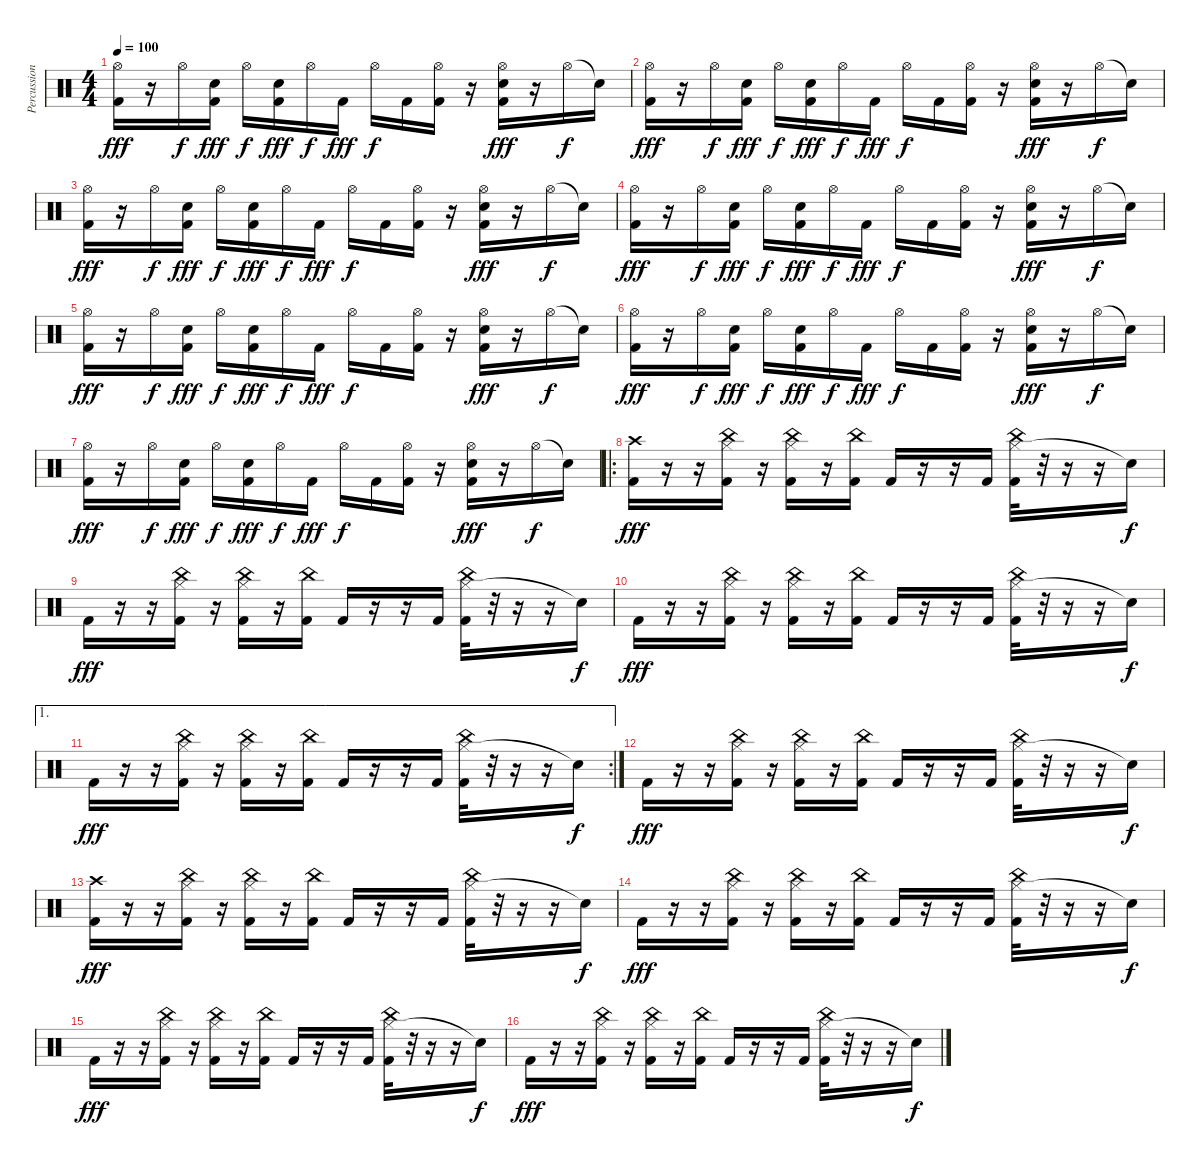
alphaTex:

\track ("Percussion" "Percussion") {instrument percussion}
\staff {score}
\articulation defaults
\ts (4 4)
\tempo 100
\clef neutral
\ks c
("Hi-Hat (open)" "Kick (hit) 2").16{dy fff} r.16 "Hi-Hat (open)".16{dy f} ("Snare (hit) 2" "Kick (hit) 2").16{dy fff} "Hi-Hat (open)".16{dy f} ("Snare (hit) 2" "Kick (hit) 2").16{dy fff} "Hi-Hat (open)".16{dy f} "Kick (hit) 2".16{dy fff} "Hi-Hat (open)".16{dy f} "Kick (hit) 2".16 ("Hi-Hat (open)" "Kick (hit) 2").16 r.16 ("Hi-Hat (open)" "Snare (hit) 2" "Kick (hit) 2").16{dy fff} r.16 "Hi-Hat (open)".16{dy f} "Snare (hit)"{t}.16 |
("Hi-Hat (open)" "Kick (hit) 2").16{dy fff} r.16 "Hi-Hat (open)".16{dy f} ("Snare (hit) 2" "Kick (hit) 2").16{dy fff} "Hi-Hat (open)".16{dy f} ("Snare (hit) 2" "Kick (hit) 2").16{dy fff} "Hi-Hat (open)".16{dy f} "Kick (hit) 2".16{dy fff} "Hi-Hat (open)".16{dy f} "Kick (hit) 2".16 ("Hi-Hat (open)" "Kick (hit) 2").16 r.16 ("Hi-Hat (open)" "Snare (hit) 2" "Kick (hit) 2").16{dy fff} r.16 "Hi-Hat (open)".16{dy f} "Snare (hit)"{t}.16 |
("Hi-Hat (open)" "Kick (hit) 2").16{dy fff} r.16 "Hi-Hat (open)".16{dy f} ("Snare (hit) 2" "Kick (hit) 2").16{dy fff} "Hi-Hat (open)".16{dy f} ("Snare (hit) 2" "Kick (hit) 2").16{dy fff} "Hi-Hat (open)".16{dy f} "Kick (hit) 2".16{dy fff} "Hi-Hat (open)".16{dy f} "Kick (hit) 2".16 ("Hi-Hat (open)" "Kick (hit) 2").16 r.16 ("Hi-Hat (open)" "Snare (hit) 2" "Kick (hit) 2").16{dy fff} r.16 "Hi-Hat (open)".16{dy f} "Snare (hit)"{t}.16 |
("Hi-Hat (open)" "Kick (hit) 2").16{dy fff} r.16 "Hi-Hat (open)".16{dy f} ("Snare (hit) 2" "Kick (hit) 2").16{dy fff} "Hi-Hat (open)".16{dy f} ("Snare (hit) 2" "Kick (hit) 2").16{dy fff} "Hi-Hat (open)".16{dy f} "Kick (hit) 2".16{dy fff} "Hi-Hat (open)".16{dy f} "Kick (hit) 2".16 ("Hi-Hat (open)" "Kick (hit) 2").16 r.16 ("Hi-Hat (open)" "Snare (hit) 2" "Kick (hit) 2").16{dy fff} r.16 "Hi-Hat (open)".16{dy f} "Snare (hit)"{t}.16 |
("Hi-Hat (open)" "Kick (hit) 2").16{dy fff} r.16 "Hi-Hat (open)".16{dy f} ("Snare (hit) 2" "Kick (hit) 2").16{dy fff} "Hi-Hat (open)".16{dy f} ("Snare (hit) 2" "Kick (hit) 2").16{dy fff} "Hi-Hat (open)".16{dy f} "Kick (hit) 2".16{dy fff} "Hi-Hat (open)".16{dy f} "Kick (hit) 2".16 ("Hi-Hat (open)" "Kick (hit) 2").16 r.16 ("Hi-Hat (open)" "Snare (hit) 2" "Kick (hit) 2").16{dy fff} r.16 "Hi-Hat (open)".16{dy f} "Snare (hit)"{t}.16 |
("Hi-Hat (open)" "Kick (hit) 2").16{dy fff} r.16 "Hi-Hat (open)".16{dy f} ("Snare (hit) 2" "Kick (hit) 2").16{dy fff} "Hi-Hat (open)".16{dy f} ("Snare (hit) 2" "Kick (hit) 2").16{dy fff} "Hi-Hat (open)".16{dy f} "Kick (hit) 2".16{dy fff} "Hi-Hat (open)".16{dy f} "Kick (hit) 2".16 ("Hi-Hat (open)" "Kick (hit) 2").16 r.16 ("Hi-Hat (open)" "Snare (hit) 2" "Kick (hit) 2").16{dy fff} r.16 "Hi-Hat (open)".16{dy f} "Snare (hit)"{t}.16 |
("Hi-Hat (open)" "Kick (hit) 2").16{dy fff} r.16 "Hi-Hat (open)".16{dy f} ("Snare (hit) 2" "Kick (hit) 2").16{dy fff} "Hi-Hat (open)".16{dy f} ("Snare (hit) 2" "Kick (hit) 2").16{dy fff} "Hi-Hat (open)".16{dy f} "Kick (hit) 2".16{dy fff} "Hi-Hat (open)".16{dy f} "Kick (hit) 2".16 ("Hi-Hat (open)" "Kick (hit) 2").16 r.16 ("Hi-Hat (open)" "Snare (hit) 2" "Kick (hit) 2").16{dy fff} r.16 "Hi-Hat (open)".16{dy f} "Snare (hit)"{t}.16 |
\ro
("Crash high (hit)" "Kick (hit) 2").16{dy fff volume 10} r.16 r.16 ("Hi-Hat (closed)" "China (hit)" "Kick (hit) 2").16 r.16 ("Hi-Hat (closed)" "China (hit)" "Kick (hit) 2").16 r.16 ("China (hit)" "Kick (hit) 2").16 "Kick (hit) 2".16 r.16 r.16 "Kick (hit) 2".16 ("Hi-Hat (closed)" "China (hit)" "Kick (hit) 2").32 r.32 r.16 r.16 "Snare (hit)"{t}.16{dy f} |
"Kick (hit) 2".16{dy fff} r.16 r.16 ("Hi-Hat (closed)" "China (hit)" "Kick (hit) 2").16 r.16 ("Hi-Hat (closed)" "China (hit)" "Kick (hit) 2").16 r.16 ("China (hit)" "Kick (hit) 2").16 "Kick (hit) 2".16 r.16 r.16 "Kick (hit) 2".16 ("Hi-Hat (closed)" "China (hit)" "Kick (hit) 2").32 r.32 r.16 r.16 "Snare (hit)"{t}.16{dy f} |
"Kick (hit) 2".16{dy fff volume 13} r.16 r.16 ("Hi-Hat (closed)" "China (hit)" "Kick (hit) 2").16 r.16 ("Hi-Hat (closed)" "China (hit)" "Kick (hit) 2").16 r.16 ("China (hit)" "Kick (hit) 2").16 "Kick (hit) 2".16 r.16 r.16 "Kick (hit) 2".16 ("Hi-Hat (closed)" "China (hit)" "Kick (hit) 2").32 r.32 r.16 r.16 "Snare (hit)"{t}.16{dy f} |
\ae 1
\rc 2 "Kick (hit) 2".16{dy fff volume 13}
r.16 r.16 ("Hi-Hat (closed)" "China (hit)" "Kick (hit) 2").16 r.16 ("Hi-Hat (closed)" "China (hit)" "Kick (hit) 2").16 r.16 ("China (hit)" "Kick (hit) 2").16 "Kick (hit) 2".16 r.16 r.16 "Kick (hit) 2".16 ("Hi-Hat (closed)" "China (hit)" "Kick (hit) 2").32 r.32 r.16 r.16 "Snare (hit)"{t}.16{dy f} |
"Kick (hit) 2".16{dy fff volume 13} r.16 r.16 ("Hi-Hat (closed)" "China (hit)" "Kick (hit) 2").16 r.16 ("Hi-Hat (closed)" "China (hit)" "Kick (hit) 2").16 r.16 ("China (hit)" "Kick (hit) 2").16 "Kick (hit) 2".16 r.16 r.16 "Kick (hit) 2".16 ("Hi-Hat (closed)" "China (hit)" "Kick (hit) 2").32 r.32 r.16 r.16 "Snare (hit)"{t}.16{dy f} |
("Crash high (hit)" "Kick (hit) 2").16{dy fff volume 16} r.16 r.16 ("Hi-Hat (closed)" "China (hit)" "Kick (hit) 2").16 r.16 ("Hi-Hat (closed)" "China (hit)" "Kick (hit) 2").16 r.16 ("China (hit)" "Kick (hit) 2").16 "Kick (hit) 2".16 r.16 r.16 "Kick (hit) 2".16 ("Hi-Hat (closed)" "China (hit)" "Kick (hit) 2").32 r.32 r.16 r.16 "Snare (hit)"{t}.16{dy f} |
"Kick (hit) 2".16{dy fff} r.16 r.16 ("Hi-Hat (closed)" "China (hit)" "Kick (hit) 2").16 r.16 ("Hi-Hat (closed)" "China (hit)" "Kick (hit) 2").16 r.16 ("China (hit)" "Kick (hit) 2").16 "Kick (hit) 2".16 r.16 r.16 "Kick (hit) 2".16 ("Hi-Hat (closed)" "China (hit)" "Kick (hit) 2").32 r.32 r.16 r.16 "Snare (hit)"{t}.16{dy f} |
"Kick (hit) 2".16{dy fff} r.16 r.16 ("Hi-Hat (closed)" "China (hit)" "Kick (hit) 2").16 r.16 ("Hi-Hat (closed)" "China (hit)" "Kick (hit) 2").16 r.16 ("China (hit)" "Kick (hit) 2").16 "Kick (hit) 2".16 r.16 r.16 "Kick (hit) 2".16 ("Hi-Hat (closed)" "China (hit)" "Kick (hit) 2").32 r.32 r.16 r.16 "Snare (hit)"{t}.16{dy f} |
"Kick (hit) 2".16{dy fff} r.16 r.16 ("Hi-Hat (closed)" "China (hit)" "Kick (hit) 2").16 r.16 ("Hi-Hat (closed)" "China (hit)" "Kick (hit) 2").16 r.16 ("China (hit)" "Kick (hit) 2").16 "Kick (hit) 2".16 r.16 r.16 "Kick (hit) 2".16 ("Hi-Hat (closed)" "China (hit)" "Kick (hit) 2").32 r.32 r.16 r.16 "Snare (hit)"{t}.16{dy f}
